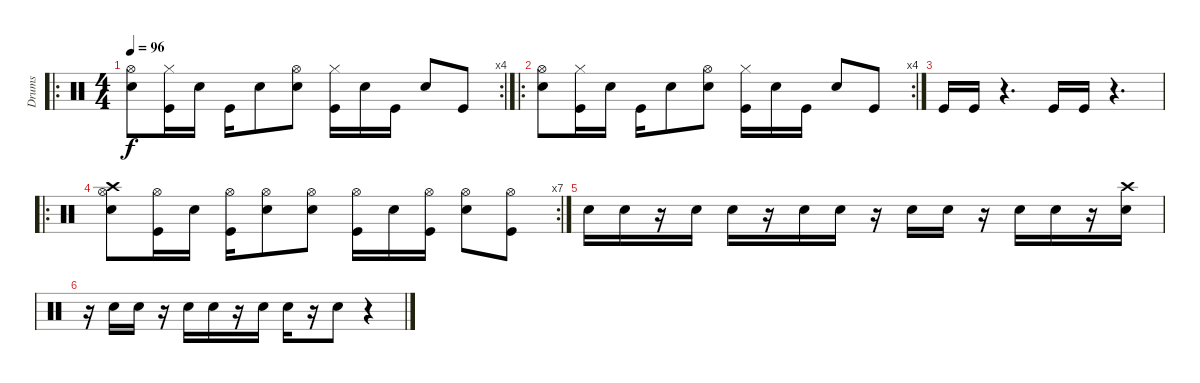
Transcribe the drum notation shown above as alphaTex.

\track ("Drums" "Drums") {instrument percussion}
\staff {score}
\articulation defaults
\ro
\rc 4
\ts (4 4)
\tempo 96
\clef neutral
\ks c
("Hi-Hat (open)" "Snare (hit) 2").8{dy f} ("Hi-Hat (closed)" "Kick (hit)").16 "Snare (hit) 2".16 "Kick (hit)".16 "Snare (hit) 2".8 ("Hi-Hat (open)" "Snare (hit) 2").8 ("Hi-Hat (closed)" "Kick (hit)").16 "Snare (hit) 2".16 "Kick (hit)".16 "Snare (hit) 2".8 "Kick (hit)".8 |
\ro
\rc 4
("Hi-Hat (open)" "Snare (hit) 2").8 ("Hi-Hat (closed)" "Kick (hit)").16 "Snare (hit) 2".16 "Kick (hit)".16 "Snare (hit) 2".8 ("Hi-Hat (open)" "Snare (hit) 2").8 ("Hi-Hat (closed)" "Kick (hit)").16 "Snare (hit) 2".16 "Kick (hit)".16 "Snare (hit) 2".8 "Kick (hit)".8 |
"Kick (hit)".16 "Kick (hit)".16 r.4{d} "Kick (hit)".16 "Kick (hit)".16 r.4{d} |
\ro
\rc 7
("Hi-Hat (open)" "Crash high (hit)" "Snare (hit) 2").8 ("Hi-Hat (open)" "Kick (hit)").16 "Snare (hit) 2".16 ("Hi-Hat (open)" "Kick (hit)").16 ("Hi-Hat (open)" "Snare (hit) 2").8 ("Hi-Hat (open)" "Snare (hit) 2").8 ("Hi-Hat (open)" "Kick (hit)").16 "Snare (hit) 2".16 ("Hi-Hat (open)" "Kick (hit)").16 ("Hi-Hat (open)" "Snare (hit) 2").8 ("Hi-Hat (open)" "Kick (hit)").8 |
"Snare (hit) 2".16 "Snare (hit) 2".16 r.16 "Snare (hit) 2".16 "Snare (hit) 2".16 r.16 "Snare (hit) 2".16 "Snare (hit) 2".16 r.16 "Snare (hit) 2".16 "Snare (hit) 2".16 r.16 "Snare (hit) 2".16 "Snare (hit) 2".16 r.16 ("Crash high (hit)" "Snare (hit) 2").16 |
r.16 "Snare (hit) 2".16 "Snare (hit) 2".16 r.16 "Snare (hit) 2".16 "Snare (hit) 2".16 r.16 "Snare (hit) 2".16 "Snare (hit) 2".16 r.16 "Snare (hit) 2".8 r.4
